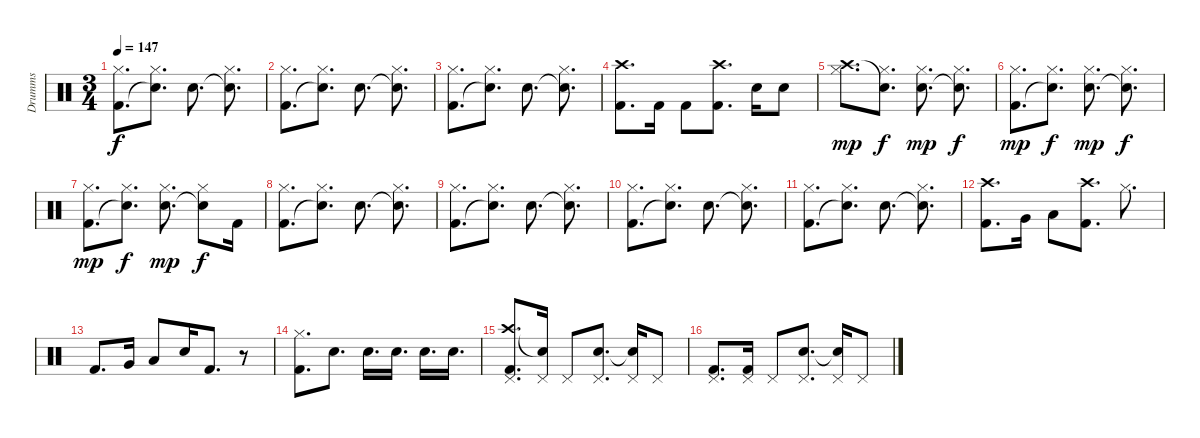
\track ("Drumms" "Drumms") {instrument percussion}
\staff {score}
\articulation defaults
\ts (3 4)
\tempo 147
\clef neutral
\ks c
("Kick (hit) 2" "Hi-Hat (closed)").8{d dy f} ("Snare (hit)"{t} "Hi-Hat (closed)").8{d} "Electric Snare (hit)".8{d} ("Snare (hit)"{t} "Hi-Hat (closed)").8{d} |
("Kick (hit) 2" "Hi-Hat (closed)").8{d} ("Snare (hit)"{t} "Hi-Hat (closed)").8{d} "Electric Snare (hit)".8{d} ("Snare (hit)"{t} "Hi-Hat (closed)").8{d} |
("Kick (hit) 2" "Hi-Hat (closed)").8{d} ("Snare (hit)"{t} "Hi-Hat (closed)").8{d} "Electric Snare (hit)".8{d} ("Snare (hit)"{t} "Hi-Hat (closed)").8{d} |
("Crash high (hit)" "Kick (hit) 2").8{d} "Kick (hit) 2".16 "Kick (hit) 2".8 ("Crash high (hit)" "Kick (hit) 2").8{d} "Electric Snare (hit)".16 "Electric Snare (hit)".8 |
("Crash high (hit)" "Hi-Hat (closed)").8{d dy mp} ("Snare (hit)"{t} "Hi-Hat (closed)").8{d dy f} ("Electric Snare (hit)" "Hi-Hat (closed)").8{d dy mp} ("Snare (hit)"{t} "Hi-Hat (closed)").8{d dy f} |
("Kick (hit) 2" "Hi-Hat (closed)").8{d dy mp} ("Snare (hit)"{t} "Hi-Hat (closed)").8{d dy f} ("Electric Snare (hit)" "Hi-Hat (closed)").8{d dy mp} ("Snare (hit)"{t} "Hi-Hat (closed)").8{d dy f} |
("Kick (hit) 2" "Hi-Hat (closed)").8{d dy mp} ("Snare (hit)"{t} "Hi-Hat (closed)").8{d dy f} ("Electric Snare (hit)" "Hi-Hat (closed)").8{d dy mp} ("Snare (hit)"{t} "Hi-Hat (closed)").8{dy f} "Kick (hit) 2".16 |
("Kick (hit) 2" "Hi-Hat (closed)").8{d} ("Snare (hit)"{t} "Hi-Hat (closed)").8{d} "Electric Snare (hit)".8{d} ("Snare (hit)"{t} "Hi-Hat (closed)").8{d} |
("Kick (hit) 2" "Hi-Hat (closed)").8{d} ("Snare (hit)"{t} "Hi-Hat (closed)").8{d} "Electric Snare (hit)".8{d} ("Snare (hit)"{t} "Hi-Hat (closed)").8{d} |
("Kick (hit) 2" "Hi-Hat (closed)").8{d} ("Snare (hit)"{t} "Hi-Hat (closed)").8{d} "Electric Snare (hit)".8{d} ("Snare (hit)"{t} "Hi-Hat (closed)").8{d} |
("Kick (hit) 2" "Hi-Hat (closed)").8{d} ("Snare (hit)"{t} "Hi-Hat (closed)").8{d} "Electric Snare (hit)".8{d} ("Snare (hit)"{t} "Hi-Hat (closed)").8{d} |
("Crash high (hit)" "Kick (hit) 2").8{d} "Very Low Tom (hit)".16 "Low Tom (hit)".8 ("Crash high (hit)" "Kick (hit) 2").8{d} "Hi-Hat (closed)".8{d} |
"Kick (hit) 2".8{d} "Very Low Tom (hit)".16 "Low Tom (hit)".8 "Electric Snare (hit)".16 "Kick (hit) 2".8{d} r.8 |
("Kick (hit) 2" "Hi-Hat (closed)").8{d} "Electric Snare (hit)".8{d} "Electric Snare (hit)".16{d} "Electric Snare (hit)".16{d} "Electric Snare (hit)".16{d} "Electric Snare (hit)".16{d} |
\section ("" "")
("Crash high (hit)" "Kick (hit) 2" "Pedal Hi-Hat (hit)").8{d} ("Snare (hit)"{t} "Pedal Hi-Hat (hit)").16 "Pedal Hi-Hat (hit)".8 ("Electric Snare (hit)" "Pedal Hi-Hat (hit)").8{d} ("Snare (hit)"{t} "Pedal Hi-Hat (hit)").16 "Pedal Hi-Hat (hit)".8 |
("Kick (hit) 2" "Pedal Hi-Hat (hit)").8{d} ("Kick (hit) 2" "Pedal Hi-Hat (hit)").16 "Pedal Hi-Hat (hit)".8 ("Electric Snare (hit)" "Pedal Hi-Hat (hit)").8{d} ("Snare (hit)"{t} "Pedal Hi-Hat (hit)").16 "Pedal Hi-Hat (hit)".8
